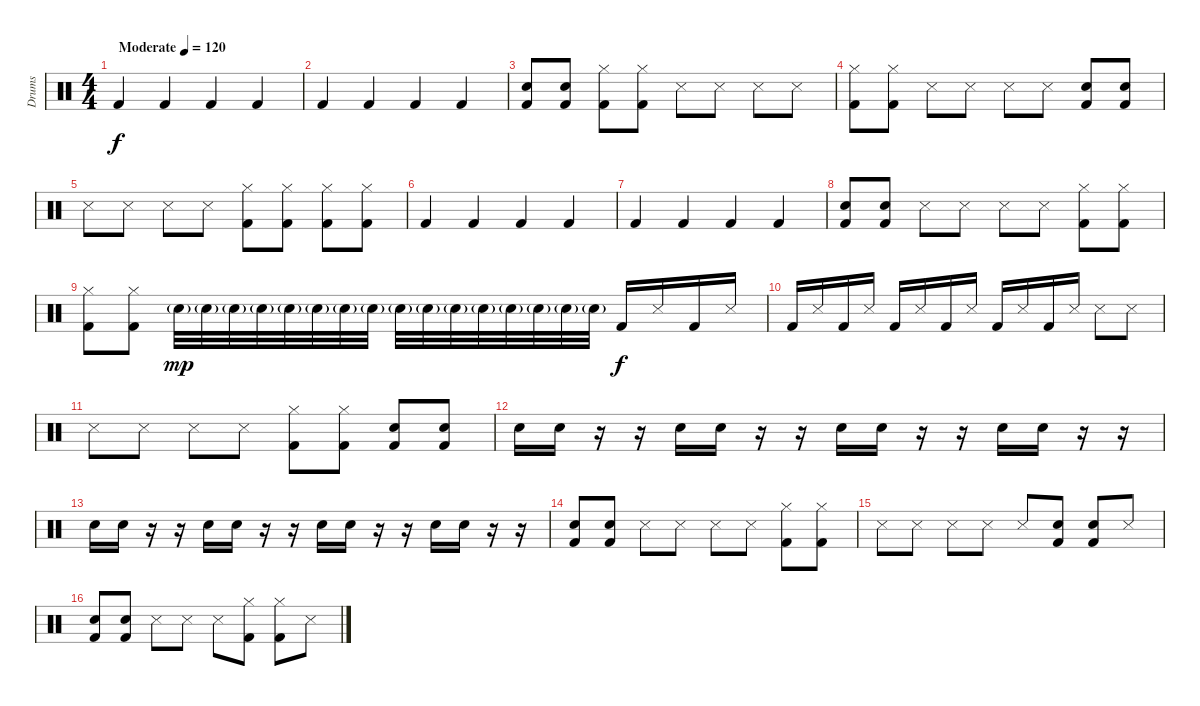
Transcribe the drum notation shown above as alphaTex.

\track ("Drums" "Drums") {instrument percussion}
\staff {score}
\articulation defaults
\ts (4 4)
\tempo (120 "Moderate")
\clef neutral
\ks c "Kick (hit) 2".4{dy f} "Kick (hit) 2".4 "Kick (hit) 2".4 "Kick (hit) 2".4
|
"Kick (hit) 2".4 "Kick (hit) 2".4 "Kick (hit) 2".4 "Kick (hit) 2".4 |
("Electric Snare (hit)" "Kick (hit) 2").8 ("Electric Snare (hit)" "Kick (hit) 2").8 ("Hi-Hat (closed)" "Kick (hit) 2").8 ("Hi-Hat (closed)" "Kick (hit) 2").8 "Snare (side stick) 3".8 "Snare (side stick) 3".8 "Snare (side stick) 3".8 "Snare (side stick) 3".8 |
("Hi-Hat (closed)" "Kick (hit) 2").8 ("Hi-Hat (closed)" "Kick (hit) 2").8 "Snare (side stick) 3".8 "Snare (side stick) 3".8 "Snare (side stick) 3".8 "Snare (side stick) 3".8 ("Electric Snare (hit)" "Kick (hit) 2").8 ("Electric Snare (hit)" "Kick (hit) 2").8 |
"Snare (side stick) 3".8 "Snare (side stick) 3".8 "Snare (side stick) 3".8 "Snare (side stick) 3".8 ("Hi-Hat (closed)" "Kick (hit) 2").8 ("Hi-Hat (closed)" "Kick (hit) 2").8 ("Hi-Hat (closed)" "Kick (hit) 2").8 ("Hi-Hat (closed)" "Kick (hit) 2").8 |
"Kick (hit) 2".4 "Kick (hit) 2".4 "Kick (hit) 2".4 "Kick (hit) 2".4 |
"Kick (hit) 2".4 "Kick (hit) 2".4 "Kick (hit) 2".4 "Kick (hit) 2".4 |
("Electric Snare (hit)" "Kick (hit) 2").8 ("Electric Snare (hit)" "Kick (hit) 2").8 "Snare (side stick) 3".8 "Snare (side stick) 3".8 "Snare (side stick) 3".8 "Snare (side stick) 3".8 ("Hi-Hat (closed)" "Kick (hit) 2").8 ("Hi-Hat (closed)" "Kick (hit) 2").8 |
("Hi-Hat (closed)" "Kick (hit) 2").8 ("Hi-Hat (closed)" "Kick (hit) 2").8 "Snare (hit) 2"{g}.32{dy mp} "Electric Snare (hit)"{g}.32 "Snare (hit) 2"{g}.32 "Electric Snare (hit)"{g}.32 "Snare (hit) 2"{g}.32 "Electric Snare (hit)"{g}.32 "Snare (hit) 2"{g}.32 "Electric Snare (hit)"{g}.32 "Snare (hit) 2"{g}.32 "Electric Snare (hit)"{g}.32 "Snare (hit) 2"{g}.32 "Electric Snare (hit)"{g}.32 "Snare (hit) 2"{g}.32 "Electric Snare (hit)"{g}.32 "Snare (hit) 2"{g}.32 "Electric Snare (hit)"{g}.32 "Kick (hit) 2".16{dy f} "Snare (side stick) 3".16 "Kick (hit) 2".16 "Snare (side stick) 3".16 |
"Kick (hit) 2".16 "Snare (side stick) 3".16 "Kick (hit) 2".16 "Snare (side stick) 3".16 "Kick (hit) 2".16 "Snare (side stick) 3".16 "Kick (hit) 2".16 "Snare (side stick) 3".16 "Kick (hit) 2".16 "Snare (side stick) 3".16 "Kick (hit) 2".16 "Snare (side stick) 3".16 "Snare (side stick) 3".8 "Snare (side stick) 3".8 |
"Snare (side stick) 3".8 "Snare (side stick) 3".8 "Snare (side stick) 3".8 "Snare (side stick) 3".8 ("Hi-Hat (closed)" "Kick (hit) 2").8 ("Hi-Hat (closed)" "Kick (hit) 2").8 ("Electric Snare (hit)" "Kick (hit) 2").8 ("Electric Snare (hit)" "Kick (hit) 2").8 |
"Snare (hit) 2".16 "Electric Snare (hit)".16 r.16 r.16 "Snare (hit) 2".16 "Electric Snare (hit)".16 r.16 r.16 "Snare (hit) 2".16 "Electric Snare (hit)".16 r.16 r.16 "Snare (hit) 2".16 "Electric Snare (hit)".16 r.16 r.16 |
"Snare (hit) 2".16 "Electric Snare (hit)".16 r.16 r.16 "Snare (hit) 2".16 "Electric Snare (hit)".16 r.16 r.16 "Snare (hit) 2".16 "Electric Snare (hit)".16 r.16 r.16 "Snare (hit) 2".16 "Electric Snare (hit)".16 r.16 r.16 |
("Electric Snare (hit)" "Kick (hit) 2").8 ("Electric Snare (hit)" "Kick (hit) 2").8 "Snare (side stick) 3".8 "Snare (side stick) 3".8 "Snare (side stick) 3".8 "Snare (side stick) 3".8 ("Hi-Hat (closed)" "Kick (hit) 2").8 ("Hi-Hat (closed)" "Kick (hit) 2").8 |
"Snare (side stick) 3".8 "Snare (side stick) 3".8 "Snare (side stick) 3".8 "Snare (side stick) 3".8 "Snare (side stick) 3".8 ("Electric Snare (hit)" "Kick (hit) 2").8 ("Electric Snare (hit)" "Kick (hit) 2").8 "Snare (side stick) 3".8 |
("Electric Snare (hit)" "Kick (hit) 2").8 ("Electric Snare (hit)" "Kick (hit) 2").8 "Snare (side stick) 3".8 "Snare (side stick) 3".8 "Snare (side stick) 3".8 ("Hi-Hat (closed)" "Kick (hit) 2").8 ("Hi-Hat (closed)" "Kick (hit) 2").8 "Snare (side stick) 3".8
